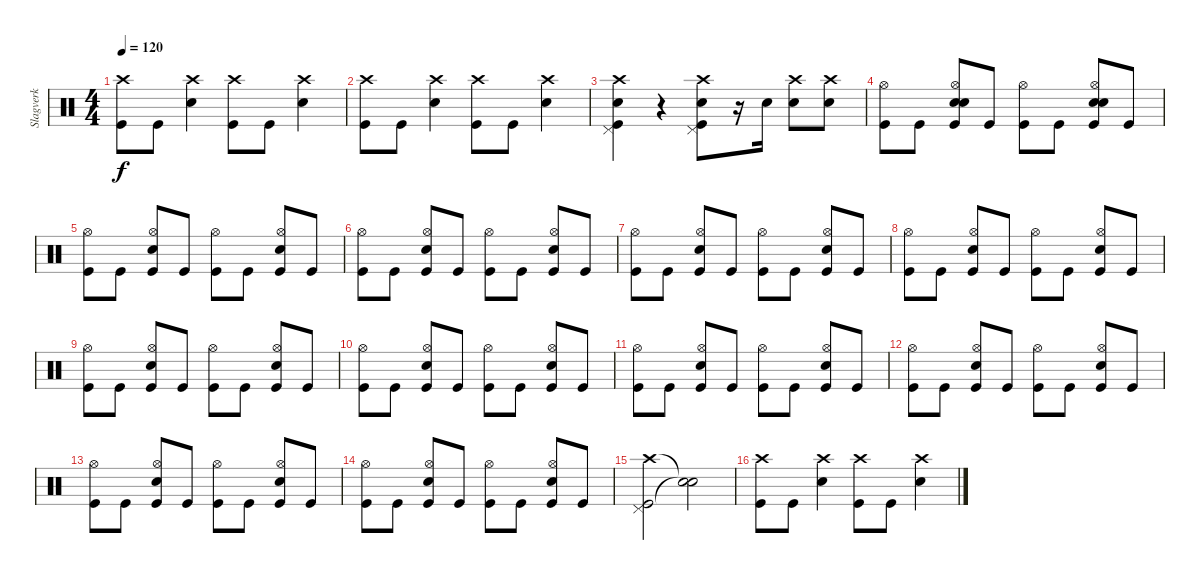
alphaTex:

\track ("Slagverk" "Slagverk") {instrument percussion}
\staff {score}
\articulation defaults
\ts (4 4)
\tempo 120
\clef neutral
\ks c
("Crash high (hit)" "Kick (hit)").8{dy f} "Kick (hit)".8 ("Crash high (hit)" "Snare (hit) 2").4 ("Crash high (hit)" "Kick (hit)").8 "Kick (hit)".8 ("Crash high (hit)" "Snare (hit) 2").4 |
("Crash high (hit)" "Kick (hit)").8 "Kick (hit)".8 ("Crash high (hit)" "Snare (hit) 2").4 ("Crash high (hit)" "Kick (hit)").8 "Kick (hit)".8 ("Crash high (hit)" "Snare (hit) 2").4 |
("Crash high (hit)" "Pedal Hi-Hat (hit)" "Kick (hit)" "Snare (hit) 2").4 r.4 ("Crash high (hit)" "Pedal Hi-Hat (hit)" "Kick (hit)" "Snare (hit) 2").8 r.16 "Snare (hit) 2".16 ("Crash high (hit)" "Snare (hit) 2").8 ("Crash high (hit)" "Snare (hit) 2").8 |
("Hi-Hat (open)" "Kick (hit)").8 "Kick (hit)".8 ("Hi-Hat (open)" "Electric Snare (hit)" "Snare (hit) 2" "Kick (hit)").8 "Kick (hit)".8 ("Hi-Hat (open)" "Kick (hit)").8 "Kick (hit)".8 ("Hi-Hat (open)" "Electric Snare (hit)" "Snare (hit) 2" "Kick (hit)").8 "Kick (hit)".8 |
("Hi-Hat (open)" "Kick (hit)").8 "Kick (hit)".8 ("Hi-Hat (open)" "Electric Snare (hit)" "Kick (hit)").8 "Kick (hit)".8 ("Hi-Hat (open)" "Kick (hit)").8 "Kick (hit)".8 ("Hi-Hat (open)" "Electric Snare (hit)" "Kick (hit)").8 "Kick (hit)".8 |
("Hi-Hat (open)" "Kick (hit)").8 "Kick (hit)".8 ("Hi-Hat (open)" "Electric Snare (hit)" "Kick (hit)").8 "Kick (hit)".8 ("Hi-Hat (open)" "Kick (hit)").8 "Kick (hit)".8 ("Hi-Hat (open)" "Electric Snare (hit)" "Kick (hit)").8 "Kick (hit)".8 |
("Hi-Hat (open)" "Kick (hit)").8 "Kick (hit)".8 ("Hi-Hat (open)" "Electric Snare (hit)" "Kick (hit)").8 "Kick (hit)".8 ("Hi-Hat (open)" "Kick (hit)").8 "Kick (hit)".8 ("Hi-Hat (open)" "Electric Snare (hit)" "Kick (hit)").8 "Kick (hit)".8 |
("Hi-Hat (open)" "Kick (hit)").8 "Kick (hit)".8 ("Hi-Hat (open)" "Electric Snare (hit)" "Kick (hit)").8 "Kick (hit)".8 ("Hi-Hat (open)" "Kick (hit)").8 "Kick (hit)".8 ("Hi-Hat (open)" "Electric Snare (hit)" "Kick (hit)").8 "Kick (hit)".8 |
("Hi-Hat (open)" "Kick (hit)").8 "Kick (hit)".8 ("Hi-Hat (open)" "Electric Snare (hit)" "Kick (hit)").8 "Kick (hit)".8 ("Hi-Hat (open)" "Kick (hit)").8 "Kick (hit)".8 ("Hi-Hat (open)" "Electric Snare (hit)" "Kick (hit)").8 "Kick (hit)".8 |
("Hi-Hat (open)" "Kick (hit)").8 "Kick (hit)".8 ("Hi-Hat (open)" "Electric Snare (hit)" "Kick (hit)").8 "Kick (hit)".8 ("Hi-Hat (open)" "Kick (hit)").8 "Kick (hit)".8 ("Hi-Hat (open)" "Electric Snare (hit)" "Kick (hit)").8 "Kick (hit)".8 |
("Hi-Hat (open)" "Kick (hit)").8 "Kick (hit)".8 ("Hi-Hat (open)" "Electric Snare (hit)" "Kick (hit)").8 "Kick (hit)".8 ("Hi-Hat (open)" "Kick (hit)").8 "Kick (hit)".8 ("Hi-Hat (open)" "Electric Snare (hit)" "Kick (hit)").8 "Kick (hit)".8 |
("Hi-Hat (open)" "Kick (hit)").8 "Kick (hit)".8 ("Hi-Hat (open)" "Electric Snare (hit)" "Kick (hit)").8 "Kick (hit)".8 ("Hi-Hat (open)" "Kick (hit)").8 "Kick (hit)".8 ("Hi-Hat (open)" "Electric Snare (hit)" "Kick (hit)").8 "Kick (hit)".8 |
("Hi-Hat (open)" "Kick (hit)").8 "Kick (hit)".8 ("Hi-Hat (open)" "Electric Snare (hit)" "Kick (hit)").8 "Kick (hit)".8 ("Hi-Hat (open)" "Kick (hit)").8 "Kick (hit)".8 ("Hi-Hat (open)" "Electric Snare (hit)" "Kick (hit)").8 "Kick (hit)".8 |
("Hi-Hat (open)" "Kick (hit)").8 "Kick (hit)".8 ("Hi-Hat (open)" "Electric Snare (hit)" "Kick (hit)").8 "Kick (hit)".8 ("Hi-Hat (open)" "Kick (hit)").8 "Kick (hit)".8 ("Hi-Hat (open)" "Electric Snare (hit)" "Kick (hit)").8 "Kick (hit)".8 |
("Crash high (hit)" "Pedal Hi-Hat (hit)" "Kick (hit)").2 ("Snare (hit)"{t} "Snare (hit)"{t}).2 |
("Crash high (hit)" "Kick (hit)").8 "Kick (hit)".8 ("Crash high (hit)" "Snare (hit) 2").4 ("Crash high (hit)" "Kick (hit)").8 "Kick (hit)".8 ("Crash high (hit)" "Snare (hit) 2").4
